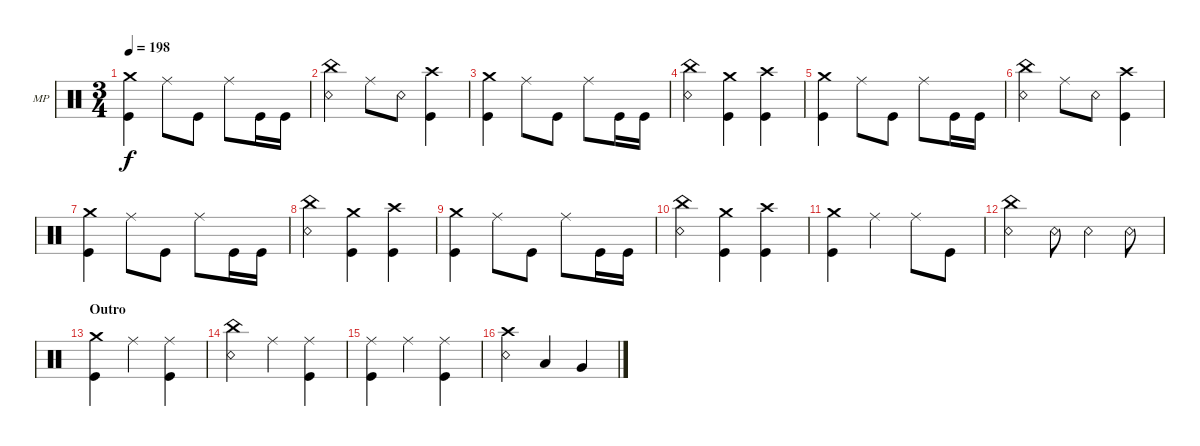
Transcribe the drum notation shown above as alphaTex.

\defaultSystemsLayout 4
\bracketExtendMode groupsimilarinstruments
\firstSystemTrackNameOrientation horizontal
\otherSystemsTrackNameOrientation horizontal
\track ("Mike Portnoy" "MP") {instrument percussion}
\staff {score}
\articulation defaults
\ts (3 4)
\tempo 198
\clef neutral
\ks c
("Crash medium (hit)" "Kick (hit)").4{dy f} "Ride (middle)".8 "Kick (hit)".8 "Ride (middle)".8 "Kick (hit)".16 "Kick (hit)".16 |
("China (hit)" "Snare (rim shot)").4 "Ride (middle)".8 "Snare (rim shot)".8 ("Crash high (hit)" "Kick (hit)").4 |
("Crash medium (hit)" "Kick (hit)").4 "Ride (middle)".8 "Kick (hit)".8 "Ride (middle)".8 "Kick (hit)".16 "Kick (hit)".16 |
("China (hit)" "Snare (rim shot)").4 ("Crash medium (hit)" "Kick (hit)").4 ("Crash high (hit)" "Kick (hit)").4 |
("Crash medium (hit)" "Kick (hit)").4 "Ride (middle)".8 "Kick (hit)".8 "Ride (middle)".8 "Kick (hit)".16 "Kick (hit)".16 |
("China (hit)" "Snare (rim shot)").4 "Ride (middle)".8 "Snare (rim shot)".8 ("Crash high (hit)" "Kick (hit)").4 |
("Crash medium (hit)" "Kick (hit)").4 "Ride (middle)".8 "Kick (hit)".8 "Ride (middle)".8 "Kick (hit)".16 "Kick (hit)".16 |
("China (hit)" "Snare (rim shot)").4 ("Crash medium (hit)" "Kick (hit)").4 ("Crash high (hit)" "Kick (hit)").4 |
("Crash medium (hit)" "Kick (hit)").4 "Ride (middle)".8 "Kick (hit)".8 "Ride (middle)".8 "Kick (hit)".16 "Kick (hit)".16 |
("China (hit)" "Snare (rim shot)").4 ("Crash medium (hit)" "Kick (hit)").4 ("Crash high (hit)" "Kick (hit)").4 |
("Crash medium (hit)" "Kick (hit)").4 "Ride (middle)".4 "Ride (middle)".8 "Kick (hit)".8 |
("China (hit)" "Snare (rim shot)").4 "Snare (rim shot)".8 "Snare (rim shot)".4 "Snare (rim shot)".8 |
\section ("" "Outro")
("Crash medium (hit)" "Kick (hit)").4 "Ride (middle)".4 ("Ride (middle)" "Kick (hit)").4 |
("China (hit)" "Snare (rim shot)").4 "Ride (middle)".4 ("Ride (middle)" "Kick (hit)").4 |
("Ride (middle)" "Kick (hit)").4 "Ride (middle)".4 ("Ride (middle)" "Kick (hit)").4 |
("Crash high (hit)" "Snare (rim shot)").4 "Low Tom (hit)".4 "Very Low Tom (hit)".4
